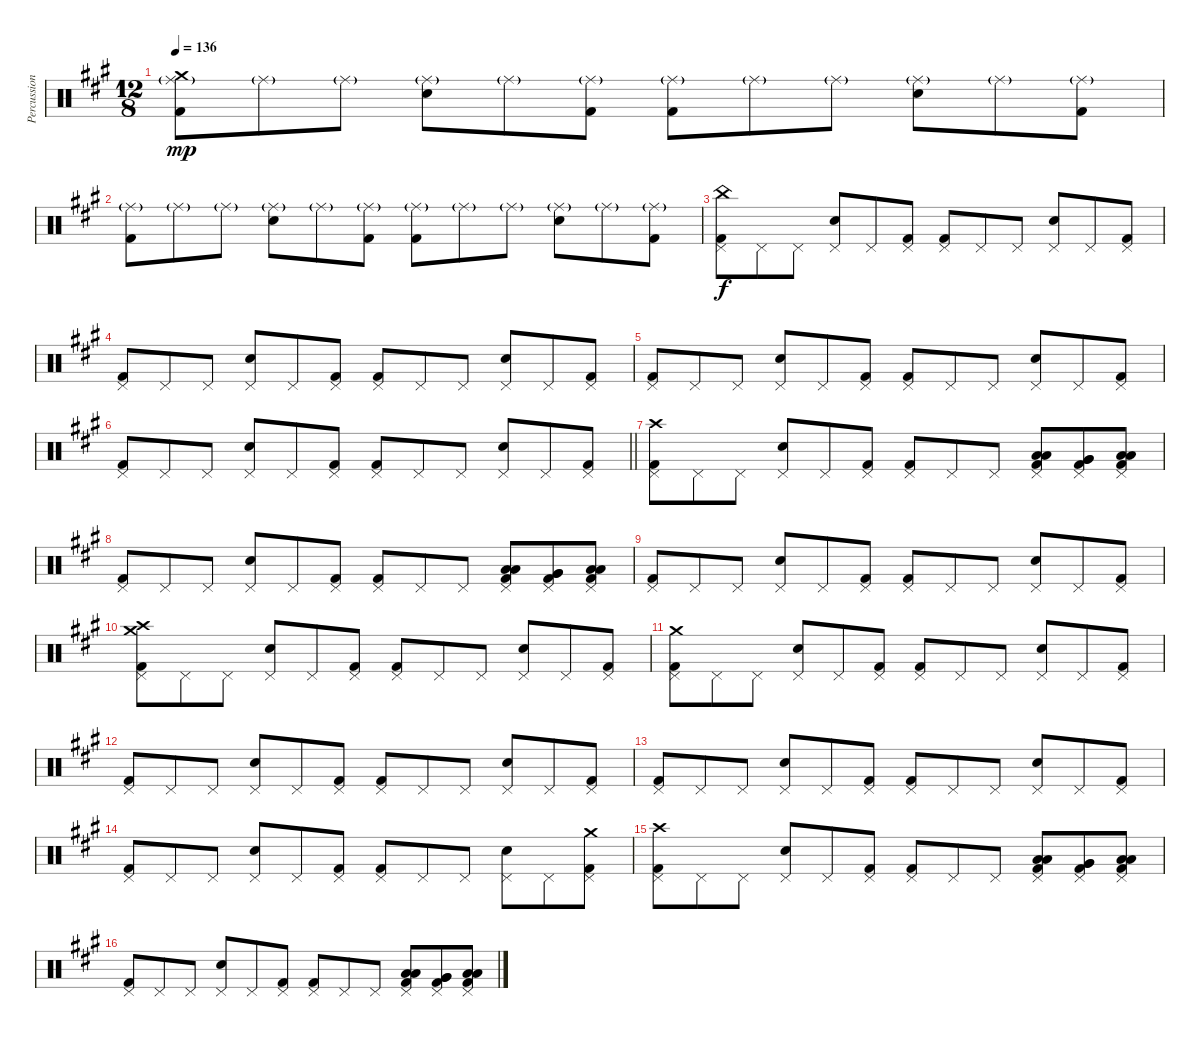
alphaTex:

\track ("Percussions" "Percussion") {instrument percussion}
\staff {score}
\articulation defaults
\ts (12 8)
\tempo 136
\clef neutral
\ks a
("Ride (middle)"{g} "Crash medium (hit)" "Kick (hit) 2").8{dy mp} "Ride (middle)"{g}.8 "Ride (middle)"{g}.8 ("Ride (middle)"{g} "Snare (hit) 2").8 "Ride (middle)"{g}.8 ("Ride (middle)"{g} "Kick (hit) 2").8 ("Ride (middle)"{g} "Kick (hit) 2").8 "Ride (middle)"{g}.8 "Ride (middle)"{g}.8 ("Ride (middle)"{g} "Snare (hit) 2").8 "Ride (middle)"{g}.8 ("Ride (middle)"{g} "Kick (hit) 2").8 |
("Ride (middle)"{g} "Kick (hit) 2").8 "Ride (middle)"{g}.8 "Ride (middle)"{g}.8 ("Ride (middle)"{g} "Snare (hit) 2").8 "Ride (middle)"{g}.8 ("Ride (middle)"{g} "Kick (hit) 2").8 ("Ride (middle)"{g} "Kick (hit) 2").8 "Ride (middle)"{g}.8 "Ride (middle)"{g}.8 ("Ride (middle)"{g} "Snare (hit) 2").8 "Ride (middle)"{g}.8 ("Ride (middle)"{g} "Kick (hit) 2").8 |
("Pedal Hi-Hat (hit)" "China (hit)" "Kick (hit) 2").8{dy f} "Pedal Hi-Hat (hit)".8 "Pedal Hi-Hat (hit)".8 ("Pedal Hi-Hat (hit)" "Snare (hit) 2").8 "Pedal Hi-Hat (hit)".8 ("Pedal Hi-Hat (hit)" "Kick (hit) 2").8 ("Pedal Hi-Hat (hit)" "Kick (hit) 2").8 "Pedal Hi-Hat (hit)".8 "Pedal Hi-Hat (hit)".8 ("Pedal Hi-Hat (hit)" "Snare (hit) 2").8 "Pedal Hi-Hat (hit)".8 ("Pedal Hi-Hat (hit)" "Kick (hit) 2").8 |
("Pedal Hi-Hat (hit)" "Kick (hit) 2").8 "Pedal Hi-Hat (hit)".8 "Pedal Hi-Hat (hit)".8 ("Pedal Hi-Hat (hit)" "Snare (hit) 2").8 "Pedal Hi-Hat (hit)".8 ("Pedal Hi-Hat (hit)" "Kick (hit) 2").8 ("Pedal Hi-Hat (hit)" "Kick (hit) 2").8 "Pedal Hi-Hat (hit)".8 "Pedal Hi-Hat (hit)".8 ("Pedal Hi-Hat (hit)" "Snare (hit) 2").8 "Pedal Hi-Hat (hit)".8 ("Pedal Hi-Hat (hit)" "Kick (hit) 2").8 |
("Pedal Hi-Hat (hit)" "Kick (hit) 2").8 "Pedal Hi-Hat (hit)".8 "Pedal Hi-Hat (hit)".8 ("Pedal Hi-Hat (hit)" "Snare (hit) 2").8 "Pedal Hi-Hat (hit)".8 ("Pedal Hi-Hat (hit)" "Kick (hit) 2").8 ("Pedal Hi-Hat (hit)" "Kick (hit) 2").8 "Pedal Hi-Hat (hit)".8 "Pedal Hi-Hat (hit)".8 ("Pedal Hi-Hat (hit)" "Snare (hit) 2").8 "Pedal Hi-Hat (hit)".8 ("Pedal Hi-Hat (hit)" "Kick (hit) 2").8 |
\barLineRight lightlight
("Pedal Hi-Hat (hit)" "Kick (hit) 2").8 "Pedal Hi-Hat (hit)".8 "Pedal Hi-Hat (hit)".8 ("Pedal Hi-Hat (hit)" "Snare (hit) 2").8 "Pedal Hi-Hat (hit)".8 ("Pedal Hi-Hat (hit)" "Kick (hit) 2").8 ("Pedal Hi-Hat (hit)" "Kick (hit) 2").8 "Pedal Hi-Hat (hit)".8 "Pedal Hi-Hat (hit)".8 ("Pedal Hi-Hat (hit)" "Snare (hit) 2").8 "Pedal Hi-Hat (hit)".8 ("Pedal Hi-Hat (hit)" "Kick (hit) 2").8 |
("Pedal Hi-Hat (hit)" "Crash high (hit)" "Kick (hit) 2").8 "Pedal Hi-Hat (hit)".8 "Pedal Hi-Hat (hit)".8 ("Pedal Hi-Hat (hit)" "Snare (hit) 2").8 "Pedal Hi-Hat (hit)".8 ("Pedal Hi-Hat (hit)" "Kick (hit) 2").8 ("Pedal Hi-Hat (hit)" "Kick (hit) 2").8 "Pedal Hi-Hat (hit)".8 "Pedal Hi-Hat (hit)".8 ("Low Tom (hit)" "Low Tom (hit)" "Kick (hit) 2" "Pedal Hi-Hat (hit)").8 ("Very Low Tom (hit)" "Very Low Tom (hit)" "Kick (hit) 2" "Pedal Hi-Hat (hit)").8 ("Low Floor Tom (hit)" "Low Floor Tom (hit)" "Kick (hit) 2" "Pedal Hi-Hat (hit)").8 |
("Pedal Hi-Hat (hit)" "Kick (hit) 2").8 "Pedal Hi-Hat (hit)".8 "Pedal Hi-Hat (hit)".8 ("Pedal Hi-Hat (hit)" "Snare (hit) 2").8 "Pedal Hi-Hat (hit)".8 ("Pedal Hi-Hat (hit)" "Kick (hit) 2").8 ("Pedal Hi-Hat (hit)" "Kick (hit) 2").8 "Pedal Hi-Hat (hit)".8 "Pedal Hi-Hat (hit)".8 ("Low Tom (hit)" "Low Tom (hit)" "Kick (hit) 2" "Pedal Hi-Hat (hit)").8 ("Very Low Tom (hit)" "Very Low Tom (hit)" "Kick (hit) 2" "Pedal Hi-Hat (hit)").8 ("Low Floor Tom (hit)" "Low Floor Tom (hit)" "Kick (hit) 2" "Pedal Hi-Hat (hit)").8 |
("Pedal Hi-Hat (hit)" "Kick (hit) 2").8 "Pedal Hi-Hat (hit)".8 "Pedal Hi-Hat (hit)".8 ("Pedal Hi-Hat (hit)" "Snare (hit) 2").8 "Pedal Hi-Hat (hit)".8 ("Pedal Hi-Hat (hit)" "Kick (hit) 2").8 ("Pedal Hi-Hat (hit)" "Kick (hit) 2").8 "Pedal Hi-Hat (hit)".8 "Pedal Hi-Hat (hit)".8 ("Pedal Hi-Hat (hit)" "Snare (hit) 2").8 "Pedal Hi-Hat (hit)".8 ("Pedal Hi-Hat (hit)" "Kick (hit) 2").8 |
("Pedal Hi-Hat (hit)" "Crash medium (hit)" "Crash high (hit)" "Kick (hit) 2").8 "Pedal Hi-Hat (hit)".8 "Pedal Hi-Hat (hit)".8 ("Pedal Hi-Hat (hit)" "Snare (hit) 2").8 "Pedal Hi-Hat (hit)".8 ("Pedal Hi-Hat (hit)" "Kick (hit) 2").8 ("Pedal Hi-Hat (hit)" "Kick (hit) 2").8 "Pedal Hi-Hat (hit)".8 "Pedal Hi-Hat (hit)".8 ("Pedal Hi-Hat (hit)" "Snare (hit) 2").8 "Pedal Hi-Hat (hit)".8 ("Pedal Hi-Hat (hit)" "Kick (hit) 2").8 |
("Pedal Hi-Hat (hit)" "Crash medium (hit)" "Kick (hit) 2").8 "Pedal Hi-Hat (hit)".8 "Pedal Hi-Hat (hit)".8 ("Pedal Hi-Hat (hit)" "Snare (hit) 2").8 "Pedal Hi-Hat (hit)".8 ("Pedal Hi-Hat (hit)" "Kick (hit) 2").8 ("Pedal Hi-Hat (hit)" "Kick (hit) 2").8 "Pedal Hi-Hat (hit)".8 "Pedal Hi-Hat (hit)".8 ("Pedal Hi-Hat (hit)" "Snare (hit) 2").8 "Pedal Hi-Hat (hit)".8 ("Pedal Hi-Hat (hit)" "Kick (hit) 2").8 |
("Pedal Hi-Hat (hit)" "Kick (hit) 2").8 "Pedal Hi-Hat (hit)".8 "Pedal Hi-Hat (hit)".8 ("Pedal Hi-Hat (hit)" "Snare (hit) 2").8 "Pedal Hi-Hat (hit)".8 ("Pedal Hi-Hat (hit)" "Kick (hit) 2").8 ("Pedal Hi-Hat (hit)" "Kick (hit) 2").8 "Pedal Hi-Hat (hit)".8 "Pedal Hi-Hat (hit)".8 ("Pedal Hi-Hat (hit)" "Snare (hit) 2").8 "Pedal Hi-Hat (hit)".8 ("Pedal Hi-Hat (hit)" "Kick (hit) 2").8 |
("Pedal Hi-Hat (hit)" "Kick (hit) 2").8 "Pedal Hi-Hat (hit)".8 "Pedal Hi-Hat (hit)".8 ("Pedal Hi-Hat (hit)" "Snare (hit) 2").8 "Pedal Hi-Hat (hit)".8 ("Pedal Hi-Hat (hit)" "Kick (hit) 2").8 ("Pedal Hi-Hat (hit)" "Kick (hit) 2").8 "Pedal Hi-Hat (hit)".8 "Pedal Hi-Hat (hit)".8 ("Pedal Hi-Hat (hit)" "Snare (hit) 2").8 "Pedal Hi-Hat (hit)".8 ("Pedal Hi-Hat (hit)" "Kick (hit) 2").8 |
("Pedal Hi-Hat (hit)" "Kick (hit) 2").8 "Pedal Hi-Hat (hit)".8 "Pedal Hi-Hat (hit)".8 ("Pedal Hi-Hat (hit)" "Snare (hit) 2").8 "Pedal Hi-Hat (hit)".8 ("Pedal Hi-Hat (hit)" "Kick (hit) 2").8 ("Pedal Hi-Hat (hit)" "Kick (hit) 2").8 "Pedal Hi-Hat (hit)".8 "Pedal Hi-Hat (hit)".8 ("Pedal Hi-Hat (hit)" "Snare (hit) 2").8 "Pedal Hi-Hat (hit)".8 ("Pedal Hi-Hat (hit)" "Crash medium (hit)" "Kick (hit) 2").8 |
("Pedal Hi-Hat (hit)" "Crash high (hit)" "Kick (hit) 2").8 "Pedal Hi-Hat (hit)".8 "Pedal Hi-Hat (hit)".8 ("Pedal Hi-Hat (hit)" "Snare (hit) 2").8 "Pedal Hi-Hat (hit)".8 ("Pedal Hi-Hat (hit)" "Kick (hit) 2").8 ("Pedal Hi-Hat (hit)" "Kick (hit) 2").8 "Pedal Hi-Hat (hit)".8 "Pedal Hi-Hat (hit)".8 ("Low Tom (hit)" "Low Tom (hit)" "Kick (hit) 2" "Pedal Hi-Hat (hit)").8 ("Very Low Tom (hit)" "Very Low Tom (hit)" "Kick (hit) 2" "Pedal Hi-Hat (hit)").8 ("Low Floor Tom (hit)" "Low Floor Tom (hit)" "Kick (hit) 2" "Pedal Hi-Hat (hit)").8 |
("Pedal Hi-Hat (hit)" "Kick (hit) 2").8 "Pedal Hi-Hat (hit)".8 "Pedal Hi-Hat (hit)".8 ("Pedal Hi-Hat (hit)" "Snare (hit) 2").8 "Pedal Hi-Hat (hit)".8 ("Pedal Hi-Hat (hit)" "Kick (hit) 2").8 ("Pedal Hi-Hat (hit)" "Kick (hit) 2").8 "Pedal Hi-Hat (hit)".8 "Pedal Hi-Hat (hit)".8 ("Low Tom (hit)" "Low Tom (hit)" "Kick (hit) 2" "Pedal Hi-Hat (hit)").8 ("Very Low Tom (hit)" "Very Low Tom (hit)" "Kick (hit) 2" "Pedal Hi-Hat (hit)").8 ("Low Floor Tom (hit)" "Low Floor Tom (hit)" "Kick (hit) 2" "Pedal Hi-Hat (hit)").8
